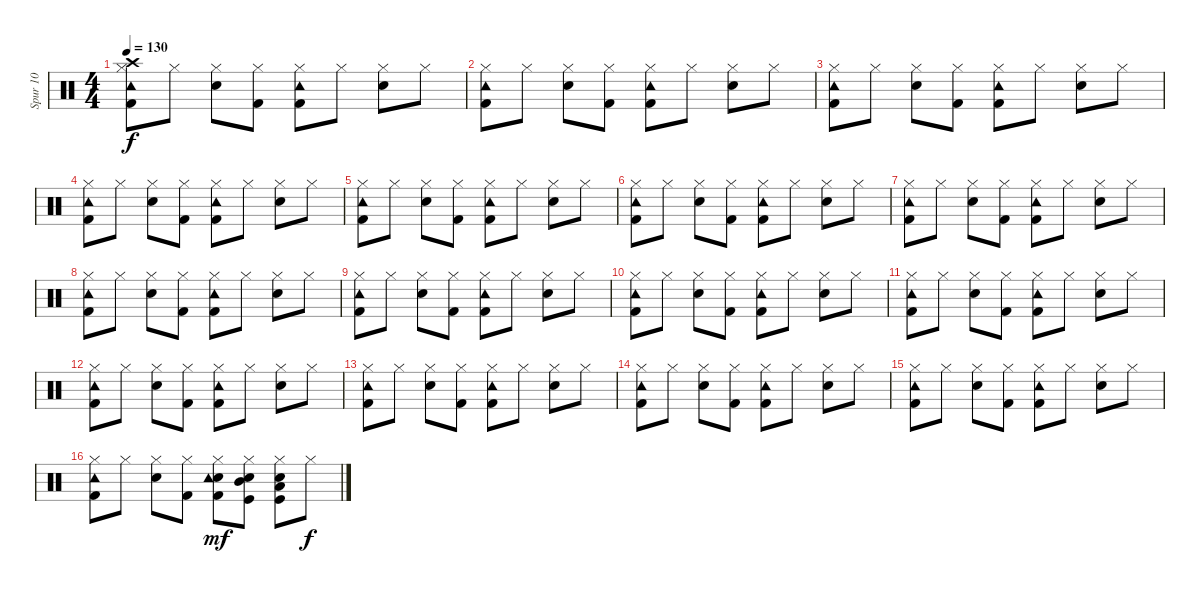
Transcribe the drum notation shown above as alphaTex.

\track ("Spur 10" "Spur 10") {instrument percussion}
\staff {score}
\articulation defaults
\ts (4 4)
\tempo 130
\clef neutral
\ks c
("Crash high (hit)" "Tambourine (hit)" "Hi-Hat (closed)" "Kick (hit) 2").8{dy f} "Hi-Hat (closed)".8 ("Hi-Hat (closed)" "Electric Snare (hit)").8 ("Hi-Hat (closed)" "Kick (hit) 2").8 ("Tambourine (hit)" "Hi-Hat (closed)" "Kick (hit) 2").8 "Hi-Hat (closed)".8 ("Hi-Hat (closed)" "Electric Snare (hit)").8 "Hi-Hat (closed)".8 |
("Hi-Hat (closed)" "Tambourine (hit)" "Kick (hit) 2").8 "Hi-Hat (closed)".8 ("Hi-Hat (closed)" "Electric Snare (hit)").8 ("Hi-Hat (closed)" "Kick (hit) 2").8 ("Tambourine (hit)" "Hi-Hat (closed)" "Kick (hit) 2").8 "Hi-Hat (closed)".8 ("Hi-Hat (closed)" "Electric Snare (hit)").8 "Hi-Hat (closed)".8 |
("Tambourine (hit)" "Hi-Hat (closed)" "Kick (hit) 2").8 "Hi-Hat (closed)".8 ("Hi-Hat (closed)" "Electric Snare (hit)").8 ("Hi-Hat (closed)" "Kick (hit) 2").8 ("Tambourine (hit)" "Hi-Hat (closed)" "Kick (hit) 2").8 "Hi-Hat (closed)".8 ("Hi-Hat (closed)" "Electric Snare (hit)").8 "Hi-Hat (closed)".8 |
("Hi-Hat (closed)" "Tambourine (hit)" "Kick (hit) 2").8 "Hi-Hat (closed)".8 ("Hi-Hat (closed)" "Electric Snare (hit)").8 ("Hi-Hat (closed)" "Kick (hit) 2").8 ("Tambourine (hit)" "Hi-Hat (closed)" "Kick (hit) 2").8 "Hi-Hat (closed)".8 ("Hi-Hat (closed)" "Electric Snare (hit)").8 "Hi-Hat (closed)".8 |
("Tambourine (hit)" "Hi-Hat (closed)" "Kick (hit) 2").8 "Hi-Hat (closed)".8 ("Hi-Hat (closed)" "Electric Snare (hit)").8 ("Hi-Hat (closed)" "Kick (hit) 2").8 ("Tambourine (hit)" "Hi-Hat (closed)" "Kick (hit) 2").8 "Hi-Hat (closed)".8 ("Hi-Hat (closed)" "Electric Snare (hit)").8 "Hi-Hat (closed)".8 |
("Hi-Hat (closed)" "Tambourine (hit)" "Kick (hit) 2").8 "Hi-Hat (closed)".8 ("Hi-Hat (closed)" "Electric Snare (hit)").8 ("Hi-Hat (closed)" "Kick (hit) 2").8 ("Tambourine (hit)" "Hi-Hat (closed)" "Kick (hit) 2").8 "Hi-Hat (closed)".8 ("Hi-Hat (closed)" "Electric Snare (hit)").8 "Hi-Hat (closed)".8 |
("Tambourine (hit)" "Hi-Hat (closed)" "Kick (hit) 2").8 "Hi-Hat (closed)".8 ("Hi-Hat (closed)" "Electric Snare (hit)").8 ("Hi-Hat (closed)" "Kick (hit) 2").8 ("Tambourine (hit)" "Hi-Hat (closed)" "Kick (hit) 2").8 "Hi-Hat (closed)".8 ("Hi-Hat (closed)" "Electric Snare (hit)").8 "Hi-Hat (closed)".8 |
("Hi-Hat (closed)" "Tambourine (hit)" "Kick (hit) 2").8 "Hi-Hat (closed)".8 ("Hi-Hat (closed)" "Electric Snare (hit)").8 ("Hi-Hat (closed)" "Kick (hit) 2").8 ("Tambourine (hit)" "Hi-Hat (closed)" "Kick (hit) 2").8 "Hi-Hat (closed)".8 ("Hi-Hat (closed)" "Electric Snare (hit)").8 "Hi-Hat (closed)".8 |
("Tambourine (hit)" "Hi-Hat (closed)" "Kick (hit) 2").8 "Hi-Hat (closed)".8 ("Hi-Hat (closed)" "Electric Snare (hit)").8 ("Hi-Hat (closed)" "Kick (hit) 2").8 ("Tambourine (hit)" "Hi-Hat (closed)" "Kick (hit) 2").8 "Hi-Hat (closed)".8 ("Hi-Hat (closed)" "Electric Snare (hit)").8 "Hi-Hat (closed)".8 |
("Hi-Hat (closed)" "Tambourine (hit)" "Kick (hit) 2").8 "Hi-Hat (closed)".8 ("Hi-Hat (closed)" "Electric Snare (hit)").8 ("Hi-Hat (closed)" "Kick (hit) 2").8 ("Tambourine (hit)" "Hi-Hat (closed)" "Kick (hit) 2").8 "Hi-Hat (closed)".8 ("Hi-Hat (closed)" "Electric Snare (hit)").8 "Hi-Hat (closed)".8 |
("Tambourine (hit)" "Hi-Hat (closed)" "Kick (hit) 2").8 "Hi-Hat (closed)".8 ("Hi-Hat (closed)" "Electric Snare (hit)").8 ("Hi-Hat (closed)" "Kick (hit) 2").8 ("Tambourine (hit)" "Hi-Hat (closed)" "Kick (hit) 2").8 "Hi-Hat (closed)".8 ("Hi-Hat (closed)" "Electric Snare (hit)").8 "Hi-Hat (closed)".8 |
("Hi-Hat (closed)" "Tambourine (hit)" "Kick (hit) 2").8 "Hi-Hat (closed)".8 ("Hi-Hat (closed)" "Electric Snare (hit)").8 ("Hi-Hat (closed)" "Kick (hit) 2").8 ("Tambourine (hit)" "Hi-Hat (closed)" "Kick (hit) 2").8 "Hi-Hat (closed)".8 ("Hi-Hat (closed)" "Electric Snare (hit)").8 "Hi-Hat (closed)".8 |
("Tambourine (hit)" "Hi-Hat (closed)" "Kick (hit) 2").8 "Hi-Hat (closed)".8 ("Hi-Hat (closed)" "Electric Snare (hit)").8 ("Hi-Hat (closed)" "Kick (hit) 2").8 ("Tambourine (hit)" "Hi-Hat (closed)" "Kick (hit) 2").8 "Hi-Hat (closed)".8 ("Hi-Hat (closed)" "Electric Snare (hit)").8 "Hi-Hat (closed)".8 |
("Hi-Hat (closed)" "Tambourine (hit)" "Kick (hit) 2").8 "Hi-Hat (closed)".8 ("Hi-Hat (closed)" "Electric Snare (hit)").8 ("Hi-Hat (closed)" "Kick (hit) 2").8 ("Tambourine (hit)" "Hi-Hat (closed)" "Kick (hit) 2").8 "Hi-Hat (closed)".8 ("Hi-Hat (closed)" "Electric Snare (hit)").8 "Hi-Hat (closed)".8 |
("Tambourine (hit)" "Hi-Hat (closed)" "Kick (hit) 2").8 "Hi-Hat (closed)".8 ("Hi-Hat (closed)" "Electric Snare (hit)").8 ("Hi-Hat (closed)" "Kick (hit) 2").8 ("Tambourine (hit)" "Hi-Hat (closed)" "Kick (hit) 2").8 "Hi-Hat (closed)".8 ("Hi-Hat (closed)" "Electric Snare (hit)").8 "Hi-Hat (closed)".8 |
("Hi-Hat (closed)" "Tambourine (hit)" "Kick (hit) 2").8 "Hi-Hat (closed)".8 ("Hi-Hat (closed)" "Electric Snare (hit)").8 ("Hi-Hat (closed)" "Kick (hit) 2").8 ("Electric Snare (hit)" "Tambourine (hit)" "Hi-Hat (closed)" "Kick (hit) 2").8{dy mf} ("Mid Tom (hit)" "Kick (hit)" "Snare (hit) 2" "Hi-Hat (closed)").8 ("Low Tom (hit)" "Kick (hit)" "Hi-Hat (closed)" "Electric Snare (hit)").8 "Hi-Hat (closed)".8{dy f}
